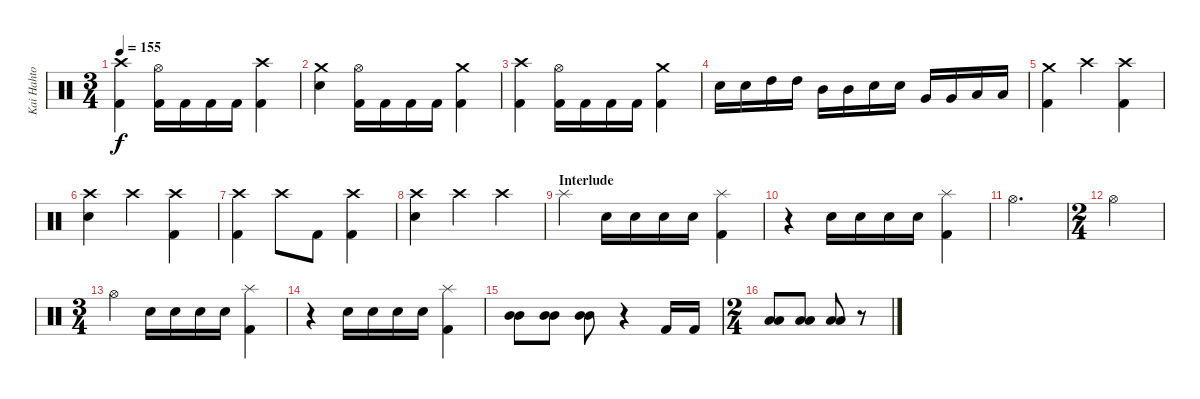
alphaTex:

\track ("Kai Hahto" "Kai Hahto") {instrument percussion}
\staff {score}
\articulation defaults
\ts (3 4)
\tempo 155
\clef neutral
\ks c
("Crash high (hit)" "Kick (hit) 2").4{dy f} ("Hi-Hat (open)" "Kick (hit) 2").16 "Kick (hit) 2".16 "Kick (hit) 2".16 "Kick (hit) 2".16 ("Crash high (hit)" "Kick (hit) 2").4 |
("Crash medium (hit)" "Electric Snare (hit)").4 ("Hi-Hat (open)" "Kick (hit) 2").16 "Kick (hit) 2".16 "Kick (hit) 2".16 "Kick (hit) 2".16 ("Crash medium (hit)" "Kick (hit) 2").4 |
("Crash high (hit)" "Kick (hit) 2").4 ("Hi-Hat (open)" "Kick (hit) 2").16 "Kick (hit) 2".16 "Kick (hit) 2".16 "Kick (hit) 2".16 ("Crash medium (hit)" "Kick (hit) 2").4 |
"Electric Snare (hit)".16 "Electric Snare (hit)".16 "High Tom (hit)".16 "High Tom (hit)".16 "Mid Tom (hit)".16 "Mid Tom (hit)".16 "Electric Snare (hit)".16 "Electric Snare (hit)".16 "Very Low Tom (hit)".16 "Very Low Tom (hit)".16 "Low Floor Tom (hit)".16 "Low Floor Tom (hit)".16 |
("Crash medium (hit)" "Kick (hit) 2").4 "Crash high (hit)".4 ("Crash high (hit)" "Kick (hit) 2").4 |
("Crash high (hit)" "Electric Snare (hit)").4 "Crash high (hit)".4 ("Crash high (hit)" "Kick (hit) 2").4 |
("Crash high (hit)" "Kick (hit) 2").4 "Crash high (hit)".8 "Kick (hit) 2".8 ("Crash high (hit)" "Kick (hit) 2").4 |
("Crash high (hit)" "Electric Snare (hit)").4 "Crash high (hit)".4 "Crash high (hit)".4 |
\section ("" "Interlude")
"Splash (hit)".4 "Electric Snare (hit)".16 "Electric Snare (hit)".16 "Electric Snare (hit)".16 "Electric Snare (hit)".16 ("Splash (hit)" "Kick (hit) 2").4 |
r.4 "Electric Snare (hit)".16 "Electric Snare (hit)".16 "Electric Snare (hit)".16 "Electric Snare (hit)".16 ("Splash (hit)" "Kick (hit) 2").4 |
"Hi-Hat (open)".2{d} |
\ts (2 4)
"Hi-Hat (open)".2 |
\ts (3 4)
"Hi-Hat (open)".4 "Electric Snare (hit)".16 "Electric Snare (hit)".16 "Electric Snare (hit)".16 "Electric Snare (hit)".16 ("Splash (hit)" "Kick (hit) 2").4 |
r.4 "Electric Snare (hit)".16 "Electric Snare (hit)".16 "Electric Snare (hit)".16 "Electric Snare (hit)".16 ("Splash (hit)" "Kick (hit) 2").4 |
("Mid Tom (hit)" "Mid Tom (hit)").8 ("Mid Tom (hit)" "Mid Tom (hit)").8 ("Mid Tom (hit)" "Mid Tom (hit)").8 r.4 "Kick (hit) 2".16 "Kick (hit) 2".16 |
\ts (2 4)
("Low Tom (hit)" "Low Tom (hit)").8 ("Low Tom (hit)" "Low Tom (hit)").8 ("Low Tom (hit)" "Low Tom (hit)").8 r.8
